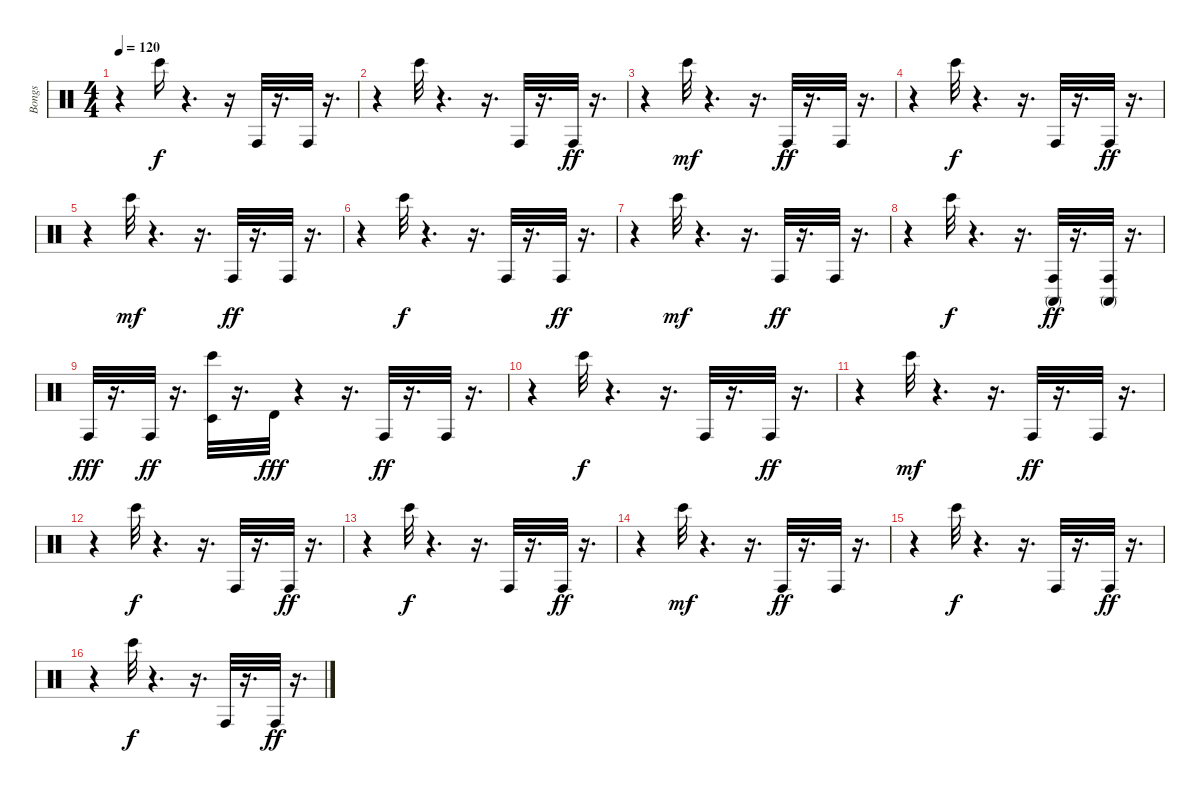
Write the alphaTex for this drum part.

\track ("Bongs" "Bongs") {instrument percussion}
\staff {score}
\articulation defaults
\ts (4 4)
\tempo 120
\clef neutral
\ks c
r.4{dy ff} "Bongo High (hit)".16{dy f} r.4{d} r.16 "Conga high (hit)".32 r.16{d} "Conga high (hit)".32 r.16{d} |
r.4 "Bongo High (hit)".32 r.4{d} r.16{d} "Conga high (hit)".32 r.16{d} "Conga high (hit)".32{dy ff} r.16{d} |
r.4 "Bongo High (hit)".32{dy mf} r.4{d} r.16{d} "Conga high (hit)".32{dy ff} r.16{d} "Conga high (hit)".32 r.16{d} |
r.4 "Bongo High (hit)".32{dy f} r.4{d} r.16{d} "Conga high (hit)".32 r.16{d} "Conga high (hit)".32{dy ff} r.16{d} |
r.4 "Bongo High (hit)".32{dy mf} r.4{d} r.16{d} "Conga high (hit)".32{dy ff} r.16{d} "Conga high (hit)".32 r.16{d} |
r.4 "Bongo High (hit)".32{dy f} r.4{d} r.16{d} "Conga high (hit)".32 r.16{d} "Conga high (hit)".32{dy ff} r.16{d} |
r.4 "Bongo High (hit)".32{dy mf} r.4{d} r.16{d} "Conga high (hit)".32{dy ff} r.16{d} "Conga high (hit)".32 r.16{d} |
r.4 "Bongo High (hit)".32{dy f} r.4{d} r.16{d} ("Conga high (mute)" "Conga high (hit)").32{dy ff} r.16{d} ("Conga high (mute)" "Conga high (hit)").32 r.16{d} |
"Conga high (hit)".32{dy fff} r.16{d} "Conga high (hit)".32{dy ff} r.16{d} ("Bongo High (hit)" "Timbale low (hit)").32 r.16{d} "Timbale high (hit)".32{dy fff} r.4 r.16{d} "Conga high (hit)".32{dy ff} r.16{d} "Conga high (hit)".32 r.16{d} |
r.4 "Bongo High (hit)".32{dy f} r.4{d} r.16{d} "Conga high (hit)".32 r.16{d} "Conga high (hit)".32{dy ff} r.16{d} |
r.4 "Bongo High (hit)".32{dy mf} r.4{d} r.16{d} "Conga high (hit)".32{dy ff} r.16{d} "Conga high (hit)".32 r.16{d} |
r.4 "Bongo High (hit)".32{dy f} r.4{d} r.16{d} "Conga high (hit)".32 r.16{d} "Conga high (hit)".32{dy ff} r.16{d} |
r.4 "Bongo High (hit)".32{dy f} r.4{d} r.16{d} "Conga high (hit)".32 r.16{d} "Conga high (hit)".32{dy ff} r.16{d} |
r.4 "Bongo High (hit)".32{dy mf} r.4{d} r.16{d} "Conga high (hit)".32{dy ff} r.16{d} "Conga high (hit)".32 r.16{d} |
r.4 "Bongo High (hit)".32{dy f} r.4{d} r.16{d} "Conga high (hit)".32 r.16{d} "Conga high (hit)".32{dy ff} r.16{d} |
r.4 "Bongo High (hit)".32{dy f} r.4{d} r.16{d} "Conga high (hit)".32 r.16{d} "Conga high (hit)".32{dy ff} r.16{d}
